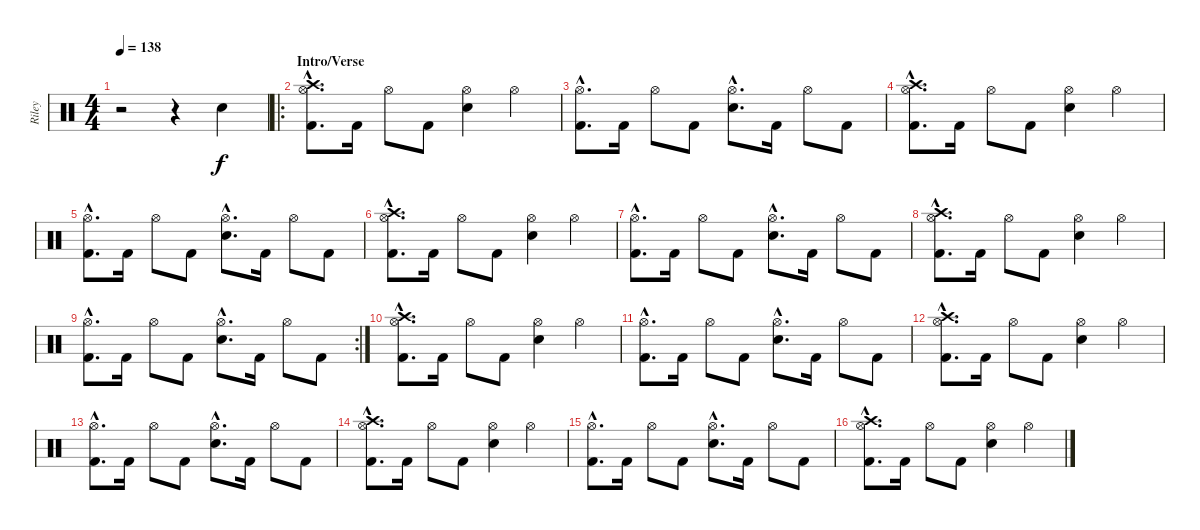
\track ("Riley" "Riley") {instrument percussion}
\staff {score}
\articulation defaults
\ts (4 4)
\tempo 138
\clef neutral
\ks c
r.2{dy f} r.4 "Electric Snare (hit)".4 |
\ro
\section ("" "Intro/Verse")
("Crash high (hit)"{hac} "Hi-Hat (open)"{hac} "Kick (hit) 2"{hac}).8{d} "Kick (hit) 2".16 "Hi-Hat (open)".8 "Kick (hit) 2".8 ("Hi-Hat (open)" "Electric Snare (hit)").4 "Hi-Hat (open)".4 |
("Hi-Hat (open)"{hac} "Kick (hit) 2"{hac}).8{d} "Kick (hit) 2".16 "Hi-Hat (open)".8 "Kick (hit) 2".8 ("Hi-Hat (open)"{hac} "Electric Snare (hit)"{hac}).8{d} "Kick (hit) 2".16 "Hi-Hat (open)".8 "Kick (hit) 2".8 |
("Crash high (hit)"{hac} "Hi-Hat (open)"{hac} "Kick (hit) 2"{hac}).8{d} "Kick (hit) 2".16 "Hi-Hat (open)".8 "Kick (hit) 2".8 ("Hi-Hat (open)" "Electric Snare (hit)").4 "Hi-Hat (open)".4 |
("Hi-Hat (open)"{hac} "Kick (hit) 2"{hac}).8{d} "Kick (hit) 2".16 "Hi-Hat (open)".8 "Kick (hit) 2".8 ("Hi-Hat (open)"{hac} "Electric Snare (hit)"{hac}).8{d} "Kick (hit) 2".16 "Hi-Hat (open)".8 "Kick (hit) 2".8 |
("Crash high (hit)"{hac} "Hi-Hat (open)"{hac} "Kick (hit) 2"{hac}).8{d} "Kick (hit) 2".16 "Hi-Hat (open)".8 "Kick (hit) 2".8 ("Hi-Hat (open)" "Electric Snare (hit)").4 "Hi-Hat (open)".4 |
("Hi-Hat (open)"{hac} "Kick (hit) 2"{hac}).8{d} "Kick (hit) 2".16 "Hi-Hat (open)".8 "Kick (hit) 2".8 ("Hi-Hat (open)"{hac} "Electric Snare (hit)"{hac}).8{d} "Kick (hit) 2".16 "Hi-Hat (open)".8 "Kick (hit) 2".8 |
("Crash high (hit)"{hac} "Hi-Hat (open)"{hac} "Kick (hit) 2"{hac}).8{d} "Kick (hit) 2".16 "Hi-Hat (open)".8 "Kick (hit) 2".8 ("Hi-Hat (open)" "Electric Snare (hit)").4 "Hi-Hat (open)".4 |
\rc 2
("Hi-Hat (open)"{hac} "Kick (hit) 2"{hac}).8{d} "Kick (hit) 2".16 "Hi-Hat (open)".8 "Kick (hit) 2".8 ("Hi-Hat (open)"{hac} "Electric Snare (hit)"{hac}).8{d} "Kick (hit) 2".16 "Hi-Hat (open)".8 "Kick (hit) 2".8 |
("Crash high (hit)"{hac} "Hi-Hat (open)"{hac} "Kick (hit) 2"{hac}).8{d} "Kick (hit) 2".16 "Hi-Hat (open)".8 "Kick (hit) 2".8 ("Hi-Hat (open)" "Electric Snare (hit)").4 "Hi-Hat (open)".4 |
("Hi-Hat (open)"{hac} "Kick (hit) 2"{hac}).8{d} "Kick (hit) 2".16 "Hi-Hat (open)".8 "Kick (hit) 2".8 ("Hi-Hat (open)"{hac} "Electric Snare (hit)"{hac}).8{d} "Kick (hit) 2".16 "Hi-Hat (open)".8 "Kick (hit) 2".8 |
("Crash high (hit)"{hac} "Hi-Hat (open)"{hac} "Kick (hit) 2"{hac}).8{d} "Kick (hit) 2".16 "Hi-Hat (open)".8 "Kick (hit) 2".8 ("Hi-Hat (open)" "Electric Snare (hit)").4 "Hi-Hat (open)".4 |
("Hi-Hat (open)"{hac} "Kick (hit) 2"{hac}).8{d} "Kick (hit) 2".16 "Hi-Hat (open)".8 "Kick (hit) 2".8 ("Hi-Hat (open)"{hac} "Electric Snare (hit)"{hac}).8{d} "Kick (hit) 2".16 "Hi-Hat (open)".8 "Kick (hit) 2".8 |
("Crash high (hit)"{hac} "Hi-Hat (open)"{hac} "Kick (hit) 2"{hac}).8{d} "Kick (hit) 2".16 "Hi-Hat (open)".8 "Kick (hit) 2".8 ("Hi-Hat (open)" "Electric Snare (hit)").4 "Hi-Hat (open)".4 |
("Hi-Hat (open)"{hac} "Kick (hit) 2"{hac}).8{d} "Kick (hit) 2".16 "Hi-Hat (open)".8 "Kick (hit) 2".8 ("Hi-Hat (open)"{hac} "Electric Snare (hit)"{hac}).8{d} "Kick (hit) 2".16 "Hi-Hat (open)".8 "Kick (hit) 2".8 |
("Crash high (hit)"{hac} "Hi-Hat (open)"{hac} "Kick (hit) 2"{hac}).8{d} "Kick (hit) 2".16 "Hi-Hat (open)".8 "Kick (hit) 2".8 ("Hi-Hat (open)" "Electric Snare (hit)").4 "Hi-Hat (open)".4
